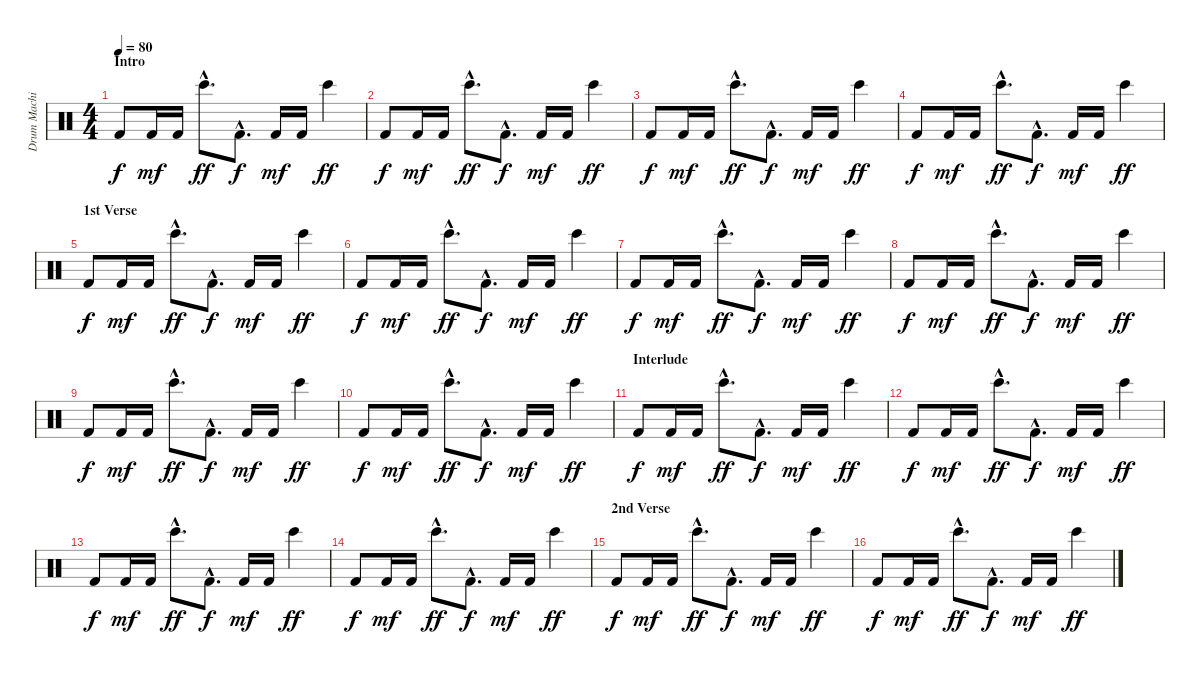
\track ("Drum Machine" "Drum Machi") {instrument percussion}
\staff {score}
\articulation defaults
\ts (4 4)
\section ("" "Intro")
\tempo 80
\clef neutral
\ks c "Kick (hit) 2".8{dy f} "Kick (hit) 2".16{dy mf} "Kick (hit) 2".16 "Bongo High (hit)"{hac}.8{d dy ff} "Kick (hit) 2"{hac}.8{d dy f} "Kick (hit) 2".16{dy mf} "Kick (hit) 2".16 "Bongo High (hit)".4{dy ff}
|
"Kick (hit) 2".8{dy f} "Kick (hit) 2".16{dy mf} "Kick (hit) 2".16 "Bongo High (hit)"{hac}.8{d dy ff} "Kick (hit) 2"{hac}.8{d dy f} "Kick (hit) 2".16{dy mf} "Kick (hit) 2".16 "Bongo High (hit)".4{dy ff} |
"Kick (hit) 2".8{dy f} "Kick (hit) 2".16{dy mf} "Kick (hit) 2".16 "Bongo High (hit)"{hac}.8{d dy ff} "Kick (hit) 2"{hac}.8{d dy f} "Kick (hit) 2".16{dy mf} "Kick (hit) 2".16 "Bongo High (hit)".4{dy ff} |
"Kick (hit) 2".8{dy f} "Kick (hit) 2".16{dy mf} "Kick (hit) 2".16 "Bongo High (hit)"{hac}.8{d dy ff} "Kick (hit) 2"{hac}.8{d dy f} "Kick (hit) 2".16{dy mf} "Kick (hit) 2".16 "Bongo High (hit)".4{dy ff} |
\section ("" "1st Verse")
"Kick (hit) 2".8{dy f} "Kick (hit) 2".16{dy mf} "Kick (hit) 2".16 "Bongo High (hit)"{hac}.8{d dy ff} "Kick (hit) 2"{hac}.8{d dy f} "Kick (hit) 2".16{dy mf} "Kick (hit) 2".16 "Bongo High (hit)".4{dy ff} |
"Kick (hit) 2".8{dy f} "Kick (hit) 2".16{dy mf} "Kick (hit) 2".16 "Bongo High (hit)"{hac}.8{d dy ff} "Kick (hit) 2"{hac}.8{d dy f} "Kick (hit) 2".16{dy mf} "Kick (hit) 2".16 "Bongo High (hit)".4{dy ff} |
"Kick (hit) 2".8{dy f} "Kick (hit) 2".16{dy mf} "Kick (hit) 2".16 "Bongo High (hit)"{hac}.8{d dy ff} "Kick (hit) 2"{hac}.8{d dy f} "Kick (hit) 2".16{dy mf} "Kick (hit) 2".16 "Bongo High (hit)".4{dy ff} |
"Kick (hit) 2".8{dy f} "Kick (hit) 2".16{dy mf} "Kick (hit) 2".16 "Bongo High (hit)"{hac}.8{d dy ff} "Kick (hit) 2"{hac}.8{d dy f} "Kick (hit) 2".16{dy mf} "Kick (hit) 2".16 "Bongo High (hit)".4{dy ff} |
"Kick (hit) 2".8{dy f} "Kick (hit) 2".16{dy mf} "Kick (hit) 2".16 "Bongo High (hit)"{hac}.8{d dy ff} "Kick (hit) 2"{hac}.8{d dy f} "Kick (hit) 2".16{dy mf} "Kick (hit) 2".16 "Bongo High (hit)".4{dy ff} |
"Kick (hit) 2".8{dy f} "Kick (hit) 2".16{dy mf} "Kick (hit) 2".16 "Bongo High (hit)"{hac}.8{d dy ff} "Kick (hit) 2"{hac}.8{d dy f} "Kick (hit) 2".16{dy mf} "Kick (hit) 2".16 "Bongo High (hit)".4{dy ff} |
\section ("" "Interlude")
"Kick (hit) 2".8{dy f} "Kick (hit) 2".16{dy mf} "Kick (hit) 2".16 "Bongo High (hit)"{hac}.8{d dy ff} "Kick (hit) 2"{hac}.8{d dy f} "Kick (hit) 2".16{dy mf} "Kick (hit) 2".16 "Bongo High (hit)".4{dy ff} |
"Kick (hit) 2".8{dy f} "Kick (hit) 2".16{dy mf} "Kick (hit) 2".16 "Bongo High (hit)"{hac}.8{d dy ff} "Kick (hit) 2"{hac}.8{d dy f} "Kick (hit) 2".16{dy mf} "Kick (hit) 2".16 "Bongo High (hit)".4{dy ff} |
"Kick (hit) 2".8{dy f} "Kick (hit) 2".16{dy mf} "Kick (hit) 2".16 "Bongo High (hit)"{hac}.8{d dy ff} "Kick (hit) 2"{hac}.8{d dy f} "Kick (hit) 2".16{dy mf} "Kick (hit) 2".16 "Bongo High (hit)".4{dy ff} |
"Kick (hit) 2".8{dy f} "Kick (hit) 2".16{dy mf} "Kick (hit) 2".16 "Bongo High (hit)"{hac}.8{d dy ff} "Kick (hit) 2"{hac}.8{d dy f} "Kick (hit) 2".16{dy mf} "Kick (hit) 2".16 "Bongo High (hit)".4{dy ff} |
\section ("" "2nd Verse")
"Kick (hit) 2".8{dy f} "Kick (hit) 2".16{dy mf} "Kick (hit) 2".16 "Bongo High (hit)"{hac}.8{d dy ff} "Kick (hit) 2"{hac}.8{d dy f} "Kick (hit) 2".16{dy mf} "Kick (hit) 2".16 "Bongo High (hit)".4{dy ff} |
"Kick (hit) 2".8{dy f} "Kick (hit) 2".16{dy mf} "Kick (hit) 2".16 "Bongo High (hit)"{hac}.8{d dy ff} "Kick (hit) 2"{hac}.8{d dy f} "Kick (hit) 2".16{dy mf} "Kick (hit) 2".16 "Bongo High (hit)".4{dy ff}
